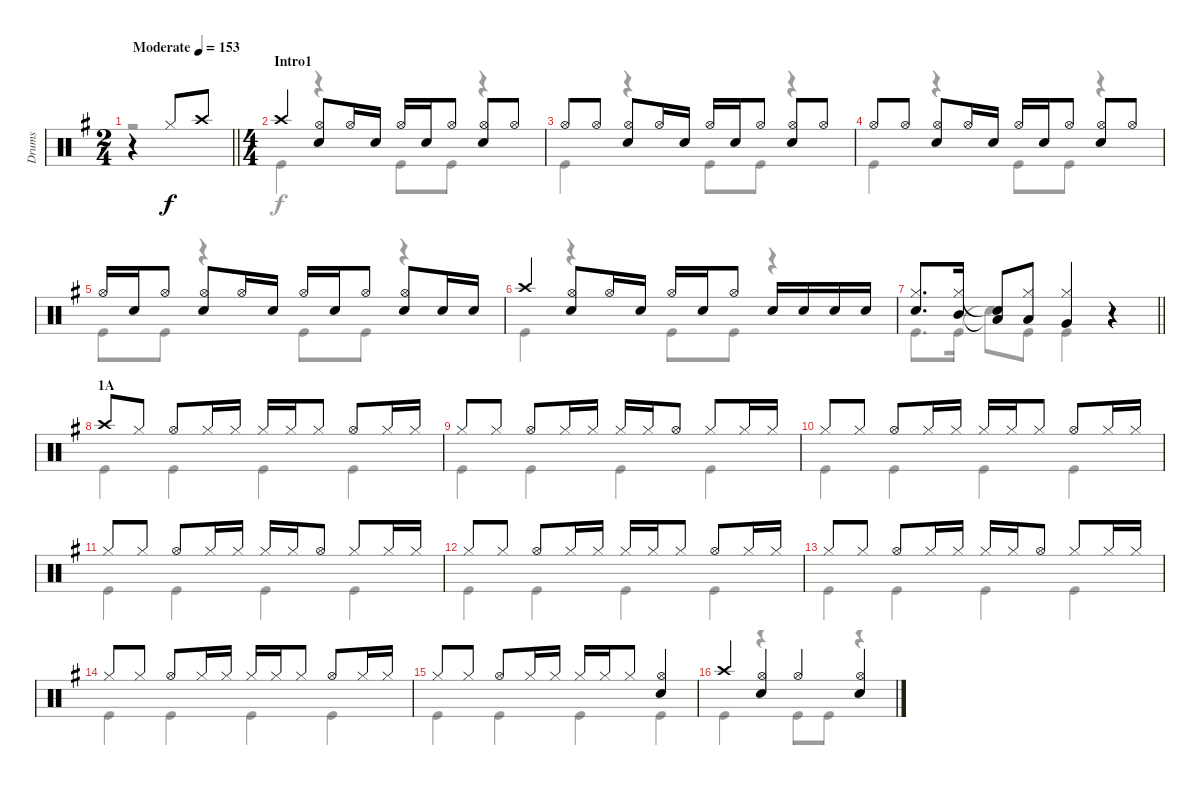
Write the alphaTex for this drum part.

\track ("Drums" "Drums") {instrument percussion}
\staff {score}
\articulation defaults
\voice
\ts (2 4)
\tempo (153 "Moderate")
\clef neutral
\barLineRight lightlight
\ks g
r.4{dy f} "Hi-Hat (closed)".8 "Crash high (hit)".8 |
\ts (4 4)
\section ("" "Intro1")
"Crash high (hit)".4 ("Hi-Hat (open)" "Snare (hit) 2").8 "Hi-Hat (open)".16 "Snare (hit) 2".16 "Hi-Hat (open)".16 "Snare (hit) 2".16 "Hi-Hat (open)".8 ("Hi-Hat (open)" "Snare (hit) 2").8 "Hi-Hat (open)".8 |
"Hi-Hat (open)".8 "Hi-Hat (open)".8 ("Hi-Hat (open)" "Snare (hit) 2").8 "Hi-Hat (open)".16 "Snare (hit) 2".16 "Hi-Hat (open)".16 "Snare (hit) 2".16 "Hi-Hat (open)".8 ("Hi-Hat (open)" "Snare (hit) 2").8 "Hi-Hat (open)".8 |
"Hi-Hat (open)".8 "Hi-Hat (open)".8 ("Hi-Hat (open)" "Snare (hit) 2").8 "Hi-Hat (open)".16 "Snare (hit) 2".16 "Hi-Hat (open)".16 "Snare (hit) 2".16 "Hi-Hat (open)".8 ("Hi-Hat (open)" "Snare (hit) 2").8 "Hi-Hat (open)".8 |
"Hi-Hat (open)".16 "Snare (hit) 2".16 "Hi-Hat (open)".8 ("Hi-Hat (open)" "Snare (hit) 2").8 "Hi-Hat (open)".16 "Snare (hit) 2".16 "Hi-Hat (open)".16 "Snare (hit) 2".16 "Hi-Hat (open)".8 ("Hi-Hat (open)" "Snare (hit) 2").8 "Snare (hit) 2".16 "Snare (hit) 2".16 |
"Crash high (hit)".4 ("Hi-Hat (open)" "Snare (hit) 2").8 "Hi-Hat (open)".16 "Snare (hit) 2".16 "Hi-Hat (open)".16 "Snare (hit) 2".16 "Hi-Hat (open)".8 "Snare (hit) 2".16 "Snare (hit) 2".16 "Snare (hit) 2".16 "Snare (hit) 2".16 |
\barLineRight lightlight
("Hi-Hat (closed)" "Snare (hit) 2").8{d} ("Hi-Hat (closed)" "Mid Tom (hit)").16 ("Snare (hit)"{t} "Low Tom (hit)"{t}).8 ("Hi-Hat (closed)" "Low Tom (hit)").8 ("Hi-Hat (closed)" "Very Low Tom (hit)").4 r.4 |
\section ("" "1A")
"Crash high (hit)".8 "Hi-Hat (closed)".8 "Hi-Hat (open)".8 "Hi-Hat (closed)".16 "Hi-Hat (closed)".16 "Hi-Hat (closed)".16 "Hi-Hat (closed)".16 "Hi-Hat (closed)".8 "Hi-Hat (open)".8 "Hi-Hat (closed)".16 "Hi-Hat (closed)".16 |
"Hi-Hat (closed)".8 "Hi-Hat (closed)".8 "Hi-Hat (open)".8 "Hi-Hat (closed)".16 "Hi-Hat (closed)".16 "Hi-Hat (closed)".16 "Hi-Hat (closed)".16 "Hi-Hat (open)".8 "Hi-Hat (closed)".8 "Hi-Hat (closed)".16 "Hi-Hat (closed)".16 |
"Hi-Hat (closed)".8 "Hi-Hat (closed)".8 "Hi-Hat (open)".8 "Hi-Hat (closed)".16 "Hi-Hat (closed)".16 "Hi-Hat (closed)".16 "Hi-Hat (closed)".16 "Hi-Hat (closed)".8 "Hi-Hat (open)".8 "Hi-Hat (closed)".16 "Hi-Hat (closed)".16 |
"Hi-Hat (closed)".8 "Hi-Hat (closed)".8 "Hi-Hat (open)".8 "Hi-Hat (closed)".16 "Hi-Hat (closed)".16 "Hi-Hat (closed)".16 "Hi-Hat (closed)".16 "Hi-Hat (open)".8 "Hi-Hat (closed)".8 "Hi-Hat (closed)".16 "Hi-Hat (closed)".16 |
"Hi-Hat (closed)".8 "Hi-Hat (closed)".8 "Hi-Hat (open)".8 "Hi-Hat (closed)".16 "Hi-Hat (closed)".16 "Hi-Hat (closed)".16 "Hi-Hat (closed)".16 "Hi-Hat (closed)".8 "Hi-Hat (open)".8 "Hi-Hat (closed)".16 "Hi-Hat (closed)".16 |
"Hi-Hat (closed)".8 "Hi-Hat (closed)".8 "Hi-Hat (open)".8 "Hi-Hat (closed)".16 "Hi-Hat (closed)".16 "Hi-Hat (closed)".16 "Hi-Hat (closed)".16 "Hi-Hat (open)".8 "Hi-Hat (closed)".8 "Hi-Hat (closed)".16 "Hi-Hat (closed)".16 |
"Hi-Hat (closed)".8 "Hi-Hat (closed)".8 "Hi-Hat (open)".8 "Hi-Hat (closed)".16 "Hi-Hat (closed)".16 "Hi-Hat (closed)".16 "Hi-Hat (closed)".16 "Hi-Hat (closed)".8 "Hi-Hat (open)".8 "Hi-Hat (closed)".16 "Hi-Hat (closed)".16 |
"Hi-Hat (closed)".8 "Hi-Hat (closed)".8 "Hi-Hat (open)".8 "Hi-Hat (closed)".16 "Hi-Hat (closed)".16 "Hi-Hat (closed)".16 "Hi-Hat (closed)".16 "Hi-Hat (closed)".8 ("Hi-Hat (open)" "Snare (hit) 2").4 |
"Crash high (hit)".4 ("Hi-Hat (open)" "Snare (hit) 2").4 "Hi-Hat (open)".4 ("Hi-Hat (open)" "Snare (hit) 2").4
\voice
\clef neutral
\ottava regular
\simile none
\barLineRight lightlight
\ks g
r.2{dy f} |
"Kick (hit)".4 r.4 "Kick (hit)".8 "Kick (hit)".8 r.4 |
"Kick (hit)".4 r.4 "Kick (hit)".8 "Kick (hit)".8 r.4 |
"Kick (hit)".4 r.4 "Kick (hit)".8 "Kick (hit)".8 r.4 |
"Kick (hit)".8 "Kick (hit)".8 r.4 "Kick (hit)".8 "Kick (hit)".8 r.4 |
"Kick (hit)".4 r.4 "Kick (hit)".8 "Kick (hit)".8 r.4 |
\barLineRight lightlight "Kick (hit)".8{d} "Kick (hit)".16 "Snare (hit)"{t}.8 "Kick (hit)".8 "Kick (hit)".4
r.4 |
"Kick (hit)".4 "Kick (hit)".4 "Kick (hit)".4 "Kick (hit)".4 |
"Kick (hit)".4 "Kick (hit)".4 "Kick (hit)".4 "Kick (hit)".4 |
"Kick (hit)".4 "Kick (hit)".4 "Kick (hit)".4 "Kick (hit)".4 |
"Kick (hit)".4 "Kick (hit)".4 "Kick (hit)".4 "Kick (hit)".4 |
"Kick (hit)".4 "Kick (hit)".4 "Kick (hit)".4 "Kick (hit)".4 |
"Kick (hit)".4 "Kick (hit)".4 "Kick (hit)".4 "Kick (hit)".4 |
"Kick (hit)".4 "Kick (hit)".4 "Kick (hit)".4 "Kick (hit)".4 |
"Kick (hit)".4 "Kick (hit)".4 "Kick (hit)".4 "Kick (hit)".4 |
"Kick (hit)".4 r.4 "Kick (hit)".8 "Kick (hit)".8 r.4
